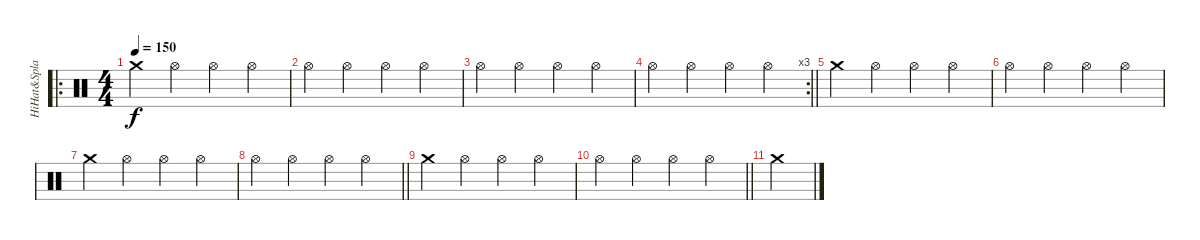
\track ("HiHat&Splash" "HiHat&Spla") {instrument percussion}
\staff {score}
\articulation defaults
\ro
\ts (4 4)
\tempo 150
\clef neutral
\ks c "Crash medium (hit)".4{dy f} "Hi-Hat (open)".4 "Hi-Hat (open)".4 "Hi-Hat (open)".4
|
"Hi-Hat (open)".4 "Hi-Hat (open)".4 "Hi-Hat (open)".4 "Hi-Hat (open)".4 |
"Hi-Hat (open)".4 "Hi-Hat (open)".4 "Hi-Hat (open)".4 "Hi-Hat (open)".4 |
\rc 3
\barLineRight lightlight "Hi-Hat (open)".4 "Hi-Hat (open)".4 "Hi-Hat (open)".4 "Hi-Hat (open)".4
|
"Crash medium (hit)".4 "Hi-Hat (open)".4 "Hi-Hat (open)".4 "Hi-Hat (open)".4 |
"Hi-Hat (open)".4 "Hi-Hat (open)".4 "Hi-Hat (open)".4 "Hi-Hat (open)".4 |
"Crash medium (hit)".4 "Hi-Hat (open)".4 "Hi-Hat (open)".4 "Hi-Hat (open)".4 |
\barLineRight lightlight "Hi-Hat (open)".4 "Hi-Hat (open)".4 "Hi-Hat (open)".4 "Hi-Hat (open)".4
|
"Crash medium (hit)".4 "Hi-Hat (open)".4 "Hi-Hat (open)".4 "Hi-Hat (open)".4 |
\barLineRight lightlight "Hi-Hat (open)".4 "Hi-Hat (open)".4 "Hi-Hat (open)".4 "Hi-Hat (open)".4
|
"Crash medium (hit)".4
